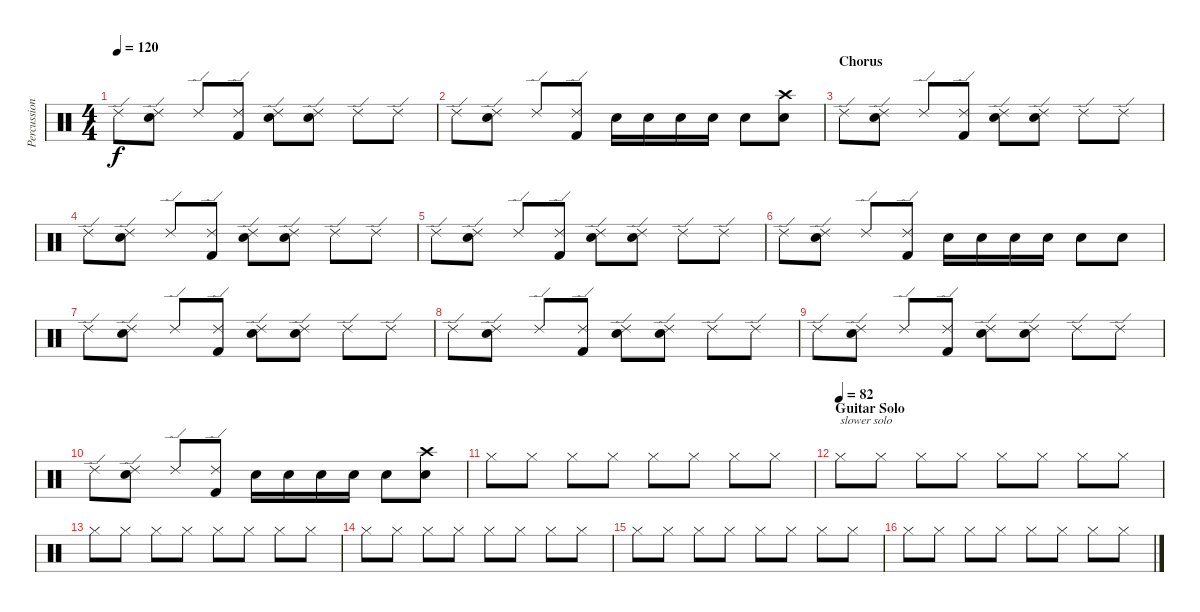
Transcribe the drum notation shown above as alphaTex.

\track ("Percussion" "Percussion") {instrument percussion}
\staff {score}
\articulation defaults
\ts (4 4)
\tempo 120
\clef neutral
\ks c "Ride (edge) 2".8{dy f}
("Ride (edge) 2" "Electric Snare (hit)").8 "Ride (edge) 2".8 ("Ride (edge) 2" "Kick (hit) 2").8 ("Ride (edge) 2" "Electric Snare (hit)").8 ("Ride (edge) 2" "Electric Snare (hit)").8 "Ride (edge) 2".8 "Ride (edge) 2".8 |
"Ride (edge) 2".8 ("Ride (edge) 2" "Electric Snare (hit)").8 "Ride (edge) 2".8 ("Ride (edge) 2" "Kick (hit) 2").8 "Electric Snare (hit)".16 "Electric Snare (hit)".16 "Electric Snare (hit)".16 "Electric Snare (hit)".16 "Electric Snare (hit)".8 ("Crash high (hit)" "Electric Snare (hit)").8 |
\section ("" "Chorus")
"Ride (edge) 2".8 ("Ride (edge) 2" "Electric Snare (hit)").8 "Ride (edge) 2".8 ("Ride (edge) 2" "Kick (hit) 2").8 ("Ride (edge) 2" "Electric Snare (hit)").8 ("Ride (edge) 2" "Electric Snare (hit)").8 "Ride (edge) 2".8 "Ride (edge) 2".8 |
"Ride (edge) 2".8 ("Ride (edge) 2" "Electric Snare (hit)").8 "Ride (edge) 2".8 ("Ride (edge) 2" "Kick (hit) 2").8 ("Ride (edge) 2" "Electric Snare (hit)").8 ("Ride (edge) 2" "Electric Snare (hit)").8 "Ride (edge) 2".8 "Ride (edge) 2".8 |
"Ride (edge) 2".8 ("Ride (edge) 2" "Electric Snare (hit)").8 "Ride (edge) 2".8 ("Ride (edge) 2" "Kick (hit) 2").8 ("Ride (edge) 2" "Electric Snare (hit)").8 ("Ride (edge) 2" "Electric Snare (hit)").8 "Ride (edge) 2".8 "Ride (edge) 2".8 |
"Ride (edge) 2".8 ("Ride (edge) 2" "Electric Snare (hit)").8 "Ride (edge) 2".8 ("Ride (edge) 2" "Kick (hit) 2").8 "Electric Snare (hit)".16 "Electric Snare (hit)".16 "Electric Snare (hit)".16 "Electric Snare (hit)".16 "Electric Snare (hit)".8 "Electric Snare (hit)".8 |
"Ride (edge) 2".8 ("Ride (edge) 2" "Electric Snare (hit)").8 "Ride (edge) 2".8 ("Ride (edge) 2" "Kick (hit) 2").8 ("Ride (edge) 2" "Electric Snare (hit)").8 ("Ride (edge) 2" "Electric Snare (hit)").8 "Ride (edge) 2".8 "Ride (edge) 2".8 |
"Ride (edge) 2".8 ("Ride (edge) 2" "Electric Snare (hit)").8 "Ride (edge) 2".8 ("Ride (edge) 2" "Kick (hit) 2").8 ("Ride (edge) 2" "Electric Snare (hit)").8 ("Ride (edge) 2" "Electric Snare (hit)").8 "Ride (edge) 2".8 "Ride (edge) 2".8 |
"Ride (edge) 2".8 ("Ride (edge) 2" "Electric Snare (hit)").8 "Ride (edge) 2".8 ("Ride (edge) 2" "Kick (hit) 2").8 ("Ride (edge) 2" "Electric Snare (hit)").8 ("Ride (edge) 2" "Electric Snare (hit)").8 "Ride (edge) 2".8 "Ride (edge) 2".8 |
"Ride (edge) 2".8 ("Ride (edge) 2" "Electric Snare (hit)").8 "Ride (edge) 2".8 ("Ride (edge) 2" "Kick (hit) 2").8 "Electric Snare (hit)".16 "Electric Snare (hit)".16 "Electric Snare (hit)".16 "Electric Snare (hit)".16 "Electric Snare (hit)".8 ("Crash high (hit)" "Electric Snare (hit)").8 |
"Hi-Hat (closed)".8 "Hi-Hat (closed)".8 "Hi-Hat (closed)".8 "Hi-Hat (closed)".8 "Hi-Hat (closed)".8 "Hi-Hat (closed)".8 "Hi-Hat (closed)".8 "Hi-Hat (closed)".8 |
\section ("" "Guitar Solo")
\tempo (82)
"Hi-Hat (closed)".8{txt "slower solo"} "Hi-Hat (closed)".8 "Hi-Hat (closed)".8 "Hi-Hat (closed)".8 "Hi-Hat (closed)".8 "Hi-Hat (closed)".8 "Hi-Hat (closed)".8 "Hi-Hat (closed)".8 |
"Hi-Hat (closed)".8 "Hi-Hat (closed)".8 "Hi-Hat (closed)".8 "Hi-Hat (closed)".8 "Hi-Hat (closed)".8 "Hi-Hat (closed)".8 "Hi-Hat (closed)".8 "Hi-Hat (closed)".8 |
"Hi-Hat (closed)".8 "Hi-Hat (closed)".8 "Hi-Hat (closed)".8 "Hi-Hat (closed)".8 "Hi-Hat (closed)".8 "Hi-Hat (closed)".8 "Hi-Hat (closed)".8 "Hi-Hat (closed)".8 |
"Hi-Hat (closed)".8 "Hi-Hat (closed)".8 "Hi-Hat (closed)".8 "Hi-Hat (closed)".8 "Hi-Hat (closed)".8 "Hi-Hat (closed)".8 "Hi-Hat (closed)".8 "Hi-Hat (closed)".8 |
"Hi-Hat (closed)".8 "Hi-Hat (closed)".8 "Hi-Hat (closed)".8 "Hi-Hat (closed)".8 "Hi-Hat (closed)".8 "Hi-Hat (closed)".8 "Hi-Hat (closed)".8 "Hi-Hat (closed)".8
